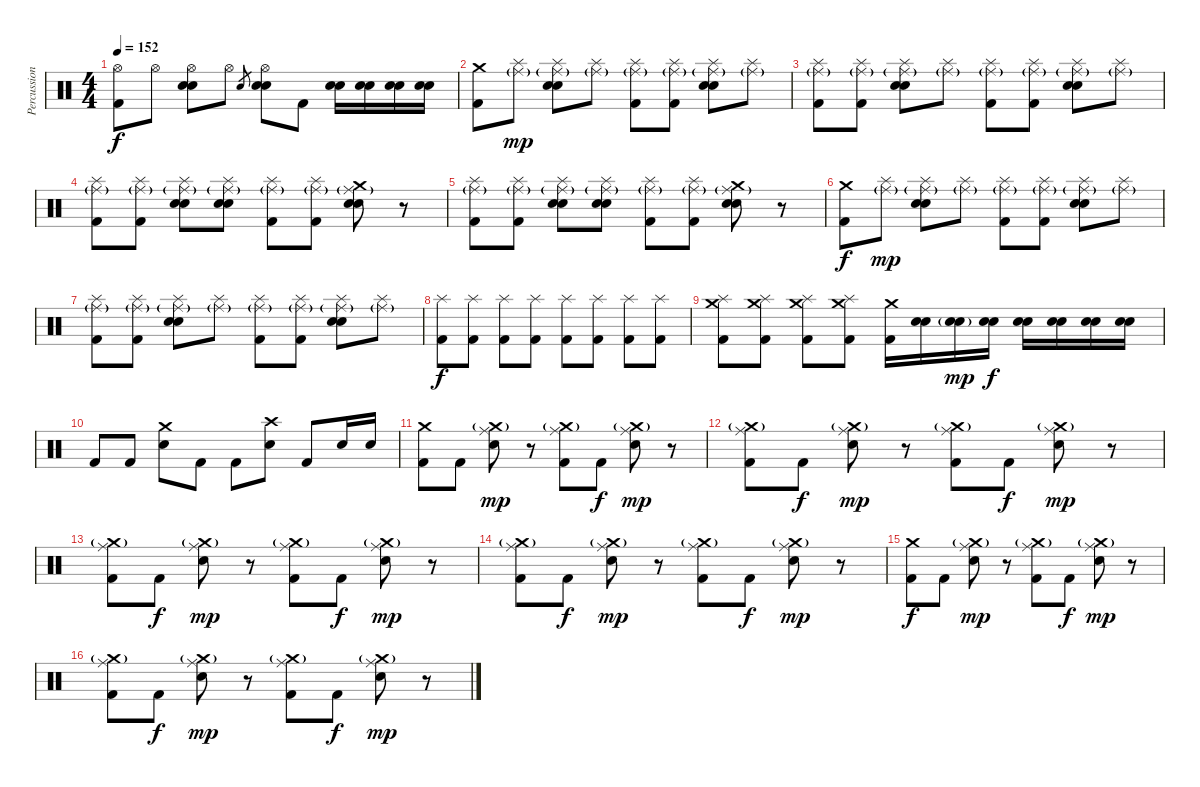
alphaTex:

\track ("Percussion" "Percussion") {instrument percussion}
\staff {score}
\articulation defaults
\ts (4 4)
\tempo 152
\clef neutral
\ks c
("Hi-Hat (open)" "Kick (hit) 2").8{dy f} "Hi-Hat (open)".8 ("Hi-Hat (open)" "Snare (hit) 2" "Electric Snare (hit)").8 "Hi-Hat (open)".8 "Electric Snare (hit)".8{gr} ("Hi-Hat (open)" "Snare (hit) 2" "Electric Snare (hit)").8 "Kick (hit) 2".8 ("Snare (hit) 2" "Electric Snare (hit)").16 ("Snare (hit) 2" "Electric Snare (hit)").16 ("Snare (hit) 2" "Electric Snare (hit)").16 ("Snare (hit) 2" "Electric Snare (hit)").16 |
("Crash medium (hit)" "Kick (hit) 2").8 ("Splash (hit)" "Ride (middle)"{g}).8{dy mp} ("Splash (hit)" "Ride (middle)"{g} "Snare (hit) 2" "Electric Snare (hit)").8 ("Splash (hit)" "Ride (middle)"{g}).8 ("Splash (hit)" "Ride (middle)"{g} "Kick (hit) 2").8 ("Splash (hit)" "Ride (middle)"{g} "Kick (hit) 2").8 ("Splash (hit)" "Ride (middle)"{g} "Snare (hit) 2" "Electric Snare (hit)").8 ("Splash (hit)" "Ride (middle)"{g}).8 |
("Splash (hit)" "Ride (middle)"{g} "Kick (hit) 2").8 ("Splash (hit)" "Ride (middle)"{g} "Kick (hit) 2").8 ("Splash (hit)" "Ride (middle)"{g} "Snare (hit) 2" "Electric Snare (hit)").8 ("Splash (hit)" "Ride (middle)"{g}).8 ("Splash (hit)" "Ride (middle)"{g} "Kick (hit) 2").8 ("Splash (hit)" "Ride (middle)"{g} "Kick (hit) 2").8 ("Splash (hit)" "Ride (middle)"{g} "Snare (hit) 2" "Electric Snare (hit)").8 ("Splash (hit)" "Ride (middle)"{g}).8 |
("Splash (hit)" "Ride (middle)"{g} "Kick (hit) 2").8 ("Splash (hit)" "Ride (middle)"{g} "Kick (hit) 2").8 ("Splash (hit)" "Ride (middle)"{g} "Snare (hit) 2" "Electric Snare (hit)").8 ("Splash (hit)" "Ride (middle)"{g} "Snare (hit) 2" "Electric Snare (hit)").8 ("Splash (hit)" "Ride (middle)"{g} "Kick (hit) 2").8 ("Splash (hit)" "Ride (middle)"{g} "Kick (hit) 2").8 ("Crash medium (hit)" "Ride (middle)"{g} "Snare (hit) 2" "Electric Snare (hit)").8 r.8 |
("Splash (hit)" "Ride (middle)"{g} "Kick (hit) 2").8 ("Splash (hit)" "Ride (middle)"{g} "Kick (hit) 2").8 ("Splash (hit)" "Ride (middle)"{g} "Snare (hit) 2" "Electric Snare (hit)").8 ("Splash (hit)" "Ride (middle)"{g} "Snare (hit) 2" "Electric Snare (hit)").8 ("Splash (hit)" "Ride (middle)"{g} "Kick (hit) 2").8 ("Splash (hit)" "Ride (middle)"{g} "Kick (hit) 2").8 ("Crash medium (hit)" "Ride (middle)"{g} "Snare (hit) 2" "Electric Snare (hit)").8 r.8 |
("Crash medium (hit)" "Kick (hit) 2").8{dy f} ("Splash (hit)" "Ride (middle)"{g}).8{dy mp} ("Splash (hit)" "Ride (middle)"{g} "Snare (hit) 2" "Electric Snare (hit)").8 ("Splash (hit)" "Ride (middle)"{g}).8 ("Splash (hit)" "Ride (middle)"{g} "Kick (hit) 2").8 ("Splash (hit)" "Ride (middle)"{g} "Kick (hit) 2").8 ("Splash (hit)" "Ride (middle)"{g} "Snare (hit) 2" "Electric Snare (hit)").8 ("Splash (hit)" "Ride (middle)"{g}).8 |
("Splash (hit)" "Ride (middle)"{g} "Kick (hit) 2").8 ("Splash (hit)" "Ride (middle)"{g} "Kick (hit) 2").8 ("Splash (hit)" "Ride (middle)"{g} "Snare (hit) 2" "Electric Snare (hit)").8 ("Splash (hit)" "Ride (middle)"{g}).8 ("Splash (hit)" "Ride (middle)"{g} "Kick (hit) 2").8 ("Splash (hit)" "Ride (middle)"{g} "Kick (hit) 2").8 ("Splash (hit)" "Ride (middle)"{g} "Snare (hit) 2" "Electric Snare (hit)").8 ("Splash (hit)" "Ride (middle)"{g}).8 |
("Splash (hit)" "Kick (hit) 2").8{dy f volume 4} ("Splash (hit)" "Kick (hit) 2").8{volume 13} ("Splash (hit)" "Kick (hit) 2").8 ("Splash (hit)" "Kick (hit) 2").8 ("Splash (hit)" "Kick (hit) 2").8 ("Splash (hit)" "Kick (hit) 2").8 ("Splash (hit)" "Kick (hit) 2").8 ("Splash (hit)" "Kick (hit) 2").8 |
("Splash (hit)" "Crash medium (hit)" "Kick (hit) 2").8 ("Splash (hit)" "Crash medium (hit)" "Kick (hit) 2").8 ("Splash (hit)" "Crash medium (hit)" "Kick (hit) 2").8 ("Splash (hit)" "Crash medium (hit)" "Kick (hit) 2").8 ("Crash medium (hit)" "Kick (hit) 2").16 ("Snare (hit) 2" "Electric Snare (hit)").16 ("Snare (hit) 2"{g} "Electric Snare (hit)"{g}).16{dy mp} ("Snare (hit) 2" "Electric Snare (hit)").16{dy f} ("Snare (hit) 2" "Electric Snare (hit)").16 ("Snare (hit) 2" "Electric Snare (hit)").16 ("Snare (hit) 2" "Electric Snare (hit)").16 ("Snare (hit) 2" "Electric Snare (hit)").16 |
"Kick (hit) 2".8 "Kick (hit) 2".8 ("Crash medium (hit)" "Electric Snare (hit)").8 "Kick (hit) 2".8 "Kick (hit) 2".8 ("Crash high (hit)" "Electric Snare (hit)").8 "Kick (hit) 2".8 "Electric Snare (hit)".16 "Electric Snare (hit)".16 |
("Crash medium (hit)" "Kick (hit) 2").8 "Kick (hit) 2".8 ("Crash medium (hit)"{g} "Ride (middle)" "Electric Snare (hit)").8{dy mp} r.8 ("Crash medium (hit)"{g} "Ride (middle)" "Kick (hit) 2").8 "Kick (hit) 2".8{dy f} ("Crash medium (hit)"{g} "Ride (middle)" "Electric Snare (hit)").8{dy mp} r.8 |
("Crash medium (hit)"{g} "Ride (middle)" "Kick (hit) 2").8 "Kick (hit) 2".8{dy f} ("Crash medium (hit)"{g} "Ride (middle)" "Electric Snare (hit)").8{dy mp} r.8 ("Crash medium (hit)"{g} "Ride (middle)" "Kick (hit) 2").8 "Kick (hit) 2".8{dy f} ("Crash medium (hit)"{g} "Ride (middle)" "Electric Snare (hit)").8{dy mp} r.8 |
("Crash medium (hit)"{g} "Ride (middle)" "Kick (hit) 2").8 "Kick (hit) 2".8{dy f} ("Crash medium (hit)"{g} "Ride (middle)" "Electric Snare (hit)").8{dy mp} r.8 ("Crash medium (hit)"{g} "Ride (middle)" "Kick (hit) 2").8 "Kick (hit) 2".8{dy f} ("Crash medium (hit)"{g} "Ride (middle)" "Electric Snare (hit)").8{dy mp} r.8 |
("Crash medium (hit)"{g} "Ride (middle)" "Kick (hit) 2").8 "Kick (hit) 2".8{dy f} ("Crash medium (hit)"{g} "Ride (middle)" "Electric Snare (hit)").8{dy mp} r.8 ("Crash medium (hit)"{g} "Ride (middle)" "Kick (hit) 2").8 "Kick (hit) 2".8{dy f} ("Crash medium (hit)"{g} "Ride (middle)" "Electric Snare (hit)").8{dy mp} r.8 |
("Crash medium (hit)" "Kick (hit) 2").8{dy f} "Kick (hit) 2".8 ("Crash medium (hit)"{g} "Ride (middle)" "Electric Snare (hit)").8{dy mp} r.8 ("Crash medium (hit)"{g} "Ride (middle)" "Kick (hit) 2").8 "Kick (hit) 2".8{dy f} ("Crash medium (hit)"{g} "Ride (middle)" "Electric Snare (hit)").8{dy mp} r.8 |
("Crash medium (hit)"{g} "Ride (middle)" "Kick (hit) 2").8 "Kick (hit) 2".8{dy f} ("Crash medium (hit)"{g} "Ride (middle)" "Electric Snare (hit)").8{dy mp} r.8 ("Crash medium (hit)"{g} "Ride (middle)" "Kick (hit) 2").8 "Kick (hit) 2".8{dy f} ("Crash medium (hit)"{g} "Ride (middle)" "Electric Snare (hit)").8{dy mp} r.8
